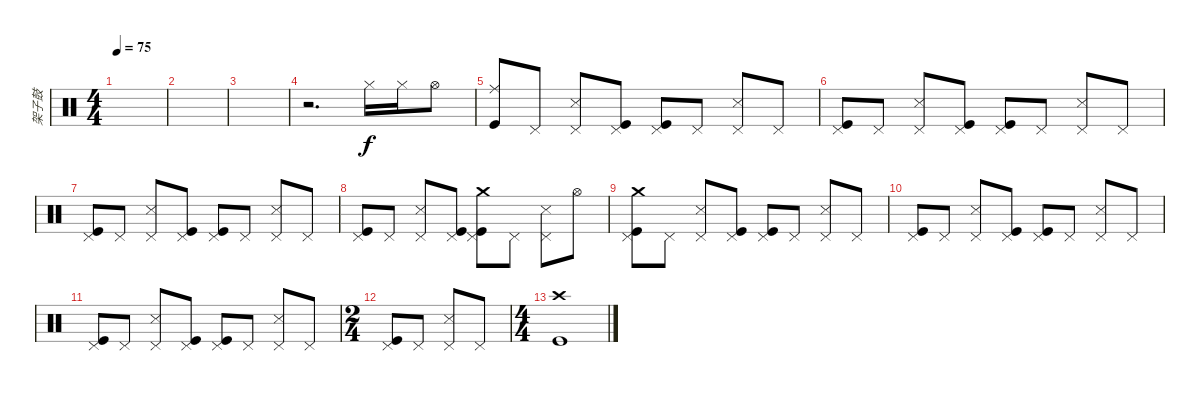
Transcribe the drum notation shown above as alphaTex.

\track ("架子鼓" "架子鼓") {instrument percussion}
\staff {score}
\articulation defaults
\ts (4 4)
\tempo 75
\clef neutral
\ks c
|
|
|
r.2{d} "Hi-Hat (closed)".16 "Hi-Hat (closed)".16 "Hi-Hat (open)".8 |
("Kick (hit)" "Ride (middle)").8 "Pedal Hi-Hat (hit)".8 ("Snare (side stick) 3" "Pedal Hi-Hat (hit)").8 ("Kick (hit)" "Pedal Hi-Hat (hit)").8 ("Kick (hit)" "Pedal Hi-Hat (hit)").8 "Pedal Hi-Hat (hit)".8 ("Snare (side stick) 3" "Pedal Hi-Hat (hit)").8 "Pedal Hi-Hat (hit)".8 |
("Kick (hit)" "Pedal Hi-Hat (hit)").8 "Pedal Hi-Hat (hit)".8 ("Snare (side stick) 3" "Pedal Hi-Hat (hit)").8 ("Kick (hit)" "Pedal Hi-Hat (hit)").8 ("Kick (hit)" "Pedal Hi-Hat (hit)").8 "Pedal Hi-Hat (hit)".8 ("Snare (side stick) 3" "Pedal Hi-Hat (hit)").8 "Pedal Hi-Hat (hit)".8 |
("Kick (hit)" "Pedal Hi-Hat (hit)").8 "Pedal Hi-Hat (hit)".8 ("Snare (side stick) 3" "Pedal Hi-Hat (hit)").8 ("Kick (hit)" "Pedal Hi-Hat (hit)").8 ("Kick (hit)" "Pedal Hi-Hat (hit)").8 "Pedal Hi-Hat (hit)".8 ("Snare (side stick) 3" "Pedal Hi-Hat (hit)").8 "Pedal Hi-Hat (hit)".8 |
("Kick (hit)" "Pedal Hi-Hat (hit)").8 "Pedal Hi-Hat (hit)".8 ("Snare (side stick) 3" "Pedal Hi-Hat (hit)").8 ("Kick (hit)" "Pedal Hi-Hat (hit)").8 ("Kick (hit)" "Pedal Hi-Hat (hit)" "Crash medium (hit)").8 "Pedal Hi-Hat (hit)".8 ("Snare (side stick) 3" "Pedal Hi-Hat (hit)").8 "Hi-Hat (open)".8 |
("Kick (hit)" "Pedal Hi-Hat (hit)" "Crash medium (hit)").8 "Pedal Hi-Hat (hit)".8 ("Snare (side stick) 3" "Pedal Hi-Hat (hit)").8 ("Kick (hit)" "Pedal Hi-Hat (hit)").8 ("Kick (hit)" "Pedal Hi-Hat (hit)").8 "Pedal Hi-Hat (hit)".8 ("Snare (side stick) 3" "Pedal Hi-Hat (hit)").8 "Pedal Hi-Hat (hit)".8 |
("Kick (hit)" "Pedal Hi-Hat (hit)").8 "Pedal Hi-Hat (hit)".8 ("Snare (side stick) 3" "Pedal Hi-Hat (hit)").8 ("Kick (hit)" "Pedal Hi-Hat (hit)").8 ("Kick (hit)" "Pedal Hi-Hat (hit)").8 "Pedal Hi-Hat (hit)".8 ("Snare (side stick) 3" "Pedal Hi-Hat (hit)").8 "Pedal Hi-Hat (hit)".8 |
("Kick (hit)" "Pedal Hi-Hat (hit)").8 "Pedal Hi-Hat (hit)".8 ("Snare (side stick) 3" "Pedal Hi-Hat (hit)").8 ("Kick (hit)" "Pedal Hi-Hat (hit)").8 ("Kick (hit)" "Pedal Hi-Hat (hit)").8 "Pedal Hi-Hat (hit)".8 ("Snare (side stick) 3" "Pedal Hi-Hat (hit)").8 "Pedal Hi-Hat (hit)".8 |
\ts (2 4)
("Kick (hit)" "Pedal Hi-Hat (hit)").8 "Pedal Hi-Hat (hit)".8 ("Snare (side stick) 3" "Pedal Hi-Hat (hit)").8 "Pedal Hi-Hat (hit)".8 |
\ts (4 4)
("Kick (hit)" "Crash high (hit)").1
